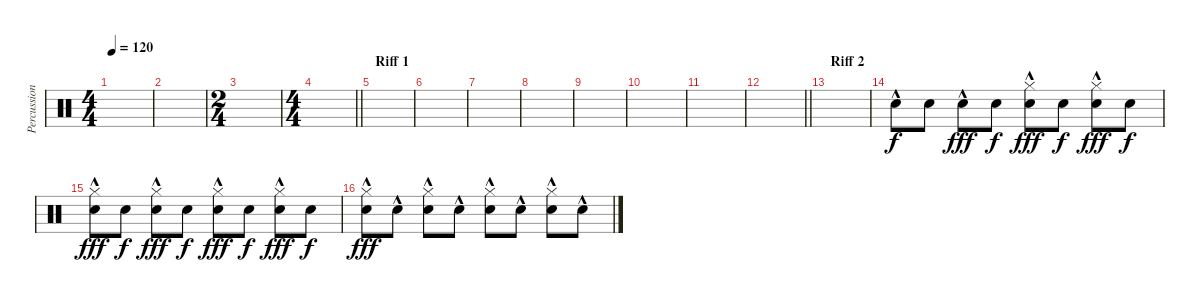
\track ("Percussion" "Percussion") {instrument percussion}
\staff {score}
\articulation defaults
\ts (4 4)
\tempo 120
\clef neutral
\ks c
|
|
\ts (2 4)
|
\ts (4 4)
\barLineRight lightlight
|
\section ("" "Riff 1")
|
|
|
|
|
|
|
\barLineRight lightlight
|
\section ("" "Riff 2")
|
"Snare (hit) 2"{hac}.8{volume 11} "Snare (hit) 2".8{dy f} "Snare (hit) 2"{hac}.8{dy fff} "Snare (hit) 2".8{dy f} ("Hi-Hat (closed)" "Snare (hit) 2"{hac}).8{dy fff} "Snare (hit) 2".8{dy f} ("Hi-Hat (closed)" "Snare (hit) 2"{hac}).8{dy fff} "Snare (hit) 2".8{dy f} |
("Hi-Hat (closed)" "Snare (hit) 2"{hac}).8{dy fff} "Snare (hit) 2".8{dy f} ("Hi-Hat (closed)" "Snare (hit) 2"{hac}).8{dy fff} "Snare (hit) 2".8{dy f} ("Hi-Hat (closed)" "Snare (hit) 2"{hac}).8{dy fff} "Snare (hit) 2".8{dy f} ("Hi-Hat (closed)" "Snare (hit) 2"{hac}).8{dy fff} "Snare (hit) 2".8{dy f} |
("Hi-Hat (closed)" "Snare (hit) 2"{hac}).8{dy fff} "Snare (hit) 2"{hac}.8 ("Hi-Hat (closed)" "Snare (hit) 2"{hac}).8 "Snare (hit) 2"{hac}.8 ("Hi-Hat (closed)" "Snare (hit) 2"{hac}).8 "Snare (hit) 2"{hac}.8 ("Hi-Hat (closed)" "Snare (hit) 2"{hac}).8 "Snare (hit) 2"{hac}.8
